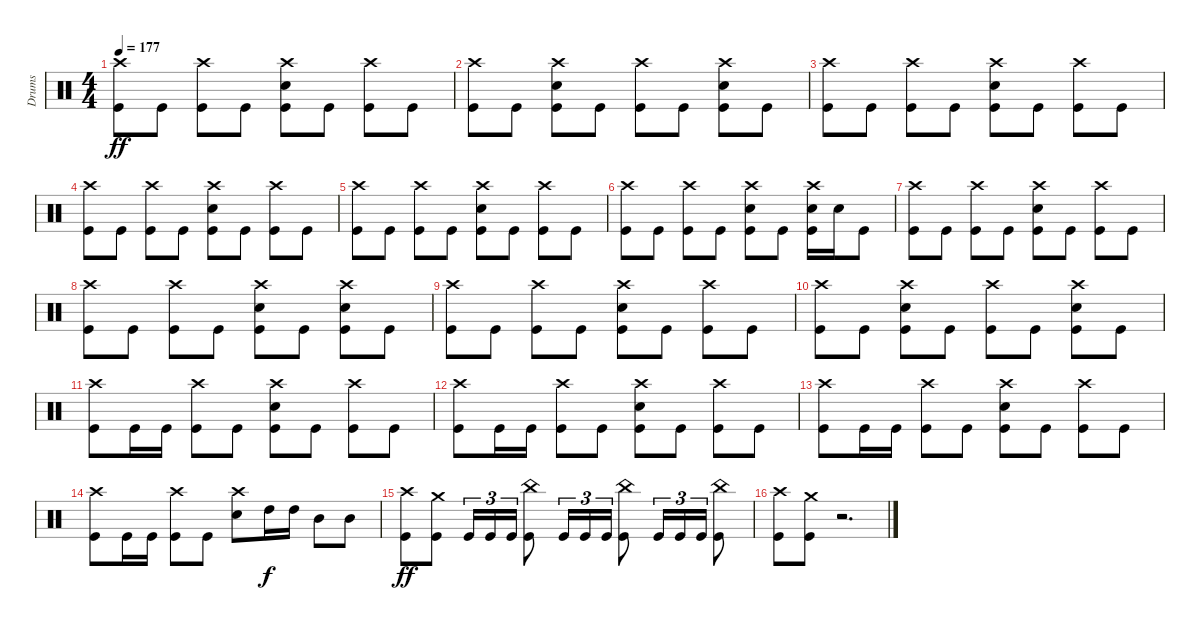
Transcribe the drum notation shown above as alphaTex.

\track ("Drums" "Drums") {instrument percussion}
\staff {score}
\articulation defaults
\ts (4 4)
\tempo 177
\clef neutral
\ks c
("Crash high (hit)" "Kick (hit)").8{dy ff} "Kick (hit)".8 ("Crash high (hit)" "Kick (hit)").8 "Kick (hit)".8 ("Crash high (hit)" "Electric Snare (hit)" "Kick (hit)").8 "Kick (hit)".8 ("Crash high (hit)" "Kick (hit)").8 "Kick (hit)".8 |
("Crash high (hit)" "Kick (hit)").8 "Kick (hit)".8 ("Crash high (hit)" "Electric Snare (hit)" "Kick (hit)").8 "Kick (hit)".8 ("Crash high (hit)" "Kick (hit)").8 "Kick (hit)".8 ("Crash high (hit)" "Electric Snare (hit)" "Kick (hit)").8 "Kick (hit)".8 |
("Crash high (hit)" "Kick (hit)").8 "Kick (hit)".8 ("Crash high (hit)" "Kick (hit)").8 "Kick (hit)".8 ("Crash high (hit)" "Electric Snare (hit)" "Kick (hit)").8 "Kick (hit)".8 ("Crash high (hit)" "Kick (hit)").8 "Kick (hit)".8 |
("Crash high (hit)" "Kick (hit)").8 "Kick (hit)".8 ("Crash high (hit)" "Kick (hit)").8 "Kick (hit)".8 ("Crash high (hit)" "Electric Snare (hit)" "Kick (hit)").8 "Kick (hit)".8 ("Crash high (hit)" "Kick (hit)").8 "Kick (hit)".8 |
("Crash high (hit)" "Kick (hit)").8 "Kick (hit)".8 ("Crash high (hit)" "Kick (hit)").8 "Kick (hit)".8 ("Crash high (hit)" "Electric Snare (hit)" "Kick (hit)").8 "Kick (hit)".8 ("Crash high (hit)" "Kick (hit)").8 "Kick (hit)".8 |
("Crash high (hit)" "Kick (hit)").8 "Kick (hit)".8 ("Crash high (hit)" "Kick (hit)").8 "Kick (hit)".8 ("Crash high (hit)" "Electric Snare (hit)" "Kick (hit)").8 "Kick (hit)".8 ("Crash high (hit)" "Electric Snare (hit)" "Kick (hit)").16 "Electric Snare (hit)".16 "Kick (hit)".8 |
("Crash high (hit)" "Kick (hit)").8 "Kick (hit)".8 ("Crash high (hit)" "Kick (hit)").8 "Kick (hit)".8 ("Crash high (hit)" "Electric Snare (hit)" "Kick (hit)").8 "Kick (hit)".8 ("Crash high (hit)" "Kick (hit)").8 "Kick (hit)".8 |
("Crash high (hit)" "Kick (hit)").8 "Kick (hit)".8 ("Crash high (hit)" "Kick (hit)").8 "Kick (hit)".8 ("Crash high (hit)" "Electric Snare (hit)" "Kick (hit)").8 "Kick (hit)".8 ("Crash high (hit)" "Electric Snare (hit)" "Kick (hit)").8 "Kick (hit)".8 |
("Crash high (hit)" "Kick (hit)").8 "Kick (hit)".8 ("Crash high (hit)" "Kick (hit)").8 "Kick (hit)".8 ("Crash high (hit)" "Electric Snare (hit)" "Kick (hit)").8 "Kick (hit)".8 ("Crash high (hit)" "Kick (hit)").8 "Kick (hit)".8 |
("Crash high (hit)" "Kick (hit)").8 "Kick (hit)".8 ("Crash high (hit)" "Electric Snare (hit)" "Kick (hit)").8 "Kick (hit)".8 ("Crash high (hit)" "Kick (hit)").8 "Kick (hit)".8 ("Crash high (hit)" "Electric Snare (hit)" "Kick (hit)").8 "Kick (hit)".8 |
("Crash high (hit)" "Kick (hit)").8 "Kick (hit)".16 "Kick (hit)".16 ("Crash high (hit)" "Kick (hit)").8 "Kick (hit)".8 ("Crash high (hit)" "Electric Snare (hit)" "Kick (hit)").8 "Kick (hit)".8 ("Crash high (hit)" "Kick (hit)").8 "Kick (hit)".8 |
("Crash high (hit)" "Kick (hit)").8 "Kick (hit)".16 "Kick (hit)".16 ("Crash high (hit)" "Kick (hit)").8 "Kick (hit)".8 ("Crash high (hit)" "Electric Snare (hit)" "Kick (hit)").8 "Kick (hit)".8 ("Crash high (hit)" "Kick (hit)").8 "Kick (hit)".8 |
("Crash high (hit)" "Kick (hit)").8 "Kick (hit)".16 "Kick (hit)".16 ("Crash high (hit)" "Kick (hit)").8 "Kick (hit)".8 ("Crash high (hit)" "Electric Snare (hit)" "Kick (hit)").8 "Kick (hit)".8 ("Crash high (hit)" "Kick (hit)").8 "Kick (hit)".8 |
("Crash high (hit)" "Kick (hit)").8 "Kick (hit)".16 "Kick (hit)".16 ("Crash high (hit)" "Kick (hit)").8 "Kick (hit)".8 ("Crash high (hit)" "Electric Snare (hit)").8 "High Tom (hit)".16{dy f} "High Tom (hit)".16 "Mid Tom (hit)".8 "Mid Tom (hit)".8 |
("Crash high (hit)" "Kick (hit)").8{dy ff} ("Crash medium (hit)" "Kick (hit)").8 "Kick (hit)".16{tu (3 2)} "Kick (hit)".16{tu (3 2)} "Kick (hit)".16{tu (3 2)} ("China (hit)" "Kick (hit)").8 "Kick (hit)".16{tu (3 2)} "Kick (hit)".16{tu (3 2)} "Kick (hit)".16{tu (3 2)} ("China (hit)" "Kick (hit)").8 "Kick (hit)".16{tu (3 2)} "Kick (hit)".16{tu (3 2)} "Kick (hit)".16{tu (3 2)} ("China (hit)" "Kick (hit)").8 |
("Crash high (hit)" "Kick (hit)").8 ("Crash medium (hit)" "Kick (hit)").8 r.2{d}
